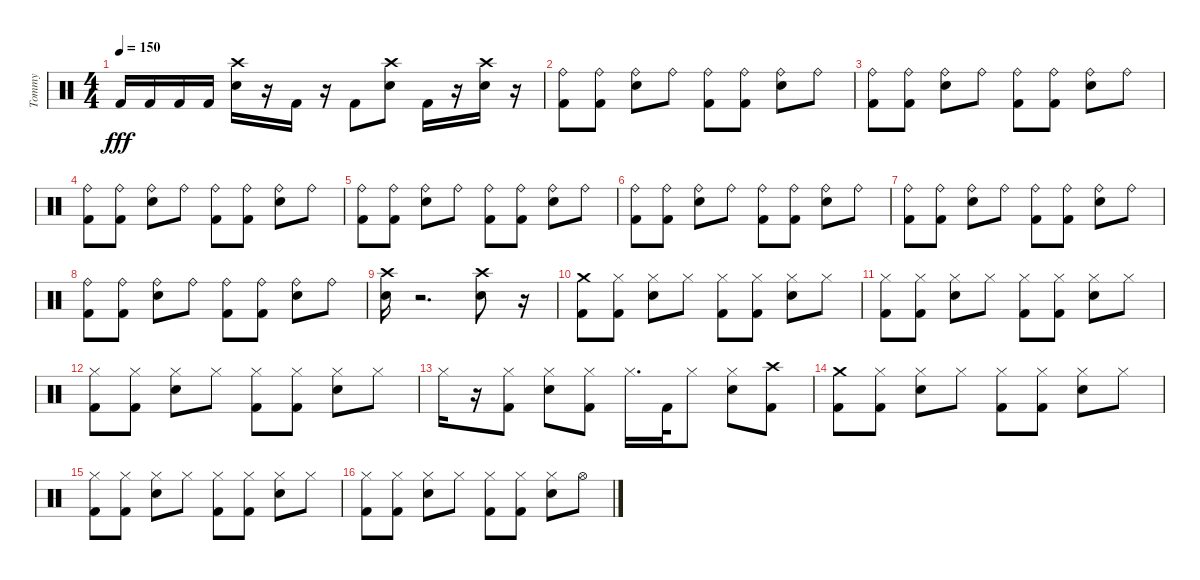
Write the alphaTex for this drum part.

\track ("Tommy" "Tommy") {instrument percussion}
\staff {score}
\articulation defaults
\ts (4 4)
\tempo 150
\clef neutral
\ks c "Kick (hit) 2".16{dy fff} "Kick (hit) 2".16 "Kick (hit) 2".16 "Kick (hit) 2".16
("Snare (hit) 2" "Crash high (hit)").16 r.16 "Kick (hit) 2".16 r.16 "Kick (hit) 2".8 ("Snare (hit) 2" "Crash high (hit)").8 "Kick (hit) 2".16 r.16 ("Snare (hit) 2" "Crash high (hit)").16 r.16 |
("Kick (hit) 2" "Ride (bell)").8 ("Kick (hit) 2" "Ride (bell)").8 ("Snare (hit) 2" "Ride (bell)").8 "Ride (bell)".8 ("Kick (hit) 2" "Ride (bell)").8 ("Kick (hit) 2" "Ride (bell)").8 ("Snare (hit) 2" "Ride (bell)").8 "Ride (bell)".8 |
("Ride (bell)" "Kick (hit) 2").8 ("Kick (hit) 2" "Ride (bell)").8 ("Snare (hit) 2" "Ride (bell)").8 "Ride (bell)".8 ("Kick (hit) 2" "Ride (bell)").8 ("Kick (hit) 2" "Ride (bell)").8 ("Snare (hit) 2" "Ride (bell)").8 "Ride (bell)".8 |
("Ride (bell)" "Kick (hit) 2").8 ("Kick (hit) 2" "Ride (bell)").8 ("Snare (hit) 2" "Ride (bell)").8 "Ride (bell)".8 ("Kick (hit) 2" "Ride (bell)").8 ("Kick (hit) 2" "Ride (bell)").8 ("Snare (hit) 2" "Ride (bell)").8 "Ride (bell)".8 |
("Ride (bell)" "Kick (hit) 2").8 ("Kick (hit) 2" "Ride (bell)").8 ("Snare (hit) 2" "Ride (bell)").8 "Ride (bell)".8 ("Kick (hit) 2" "Ride (bell)").8 ("Kick (hit) 2" "Ride (bell)").8 ("Snare (hit) 2" "Ride (bell)").8 "Ride (bell)".8 |
("Ride (bell)" "Kick (hit) 2").8 ("Kick (hit) 2" "Ride (bell)").8 ("Snare (hit) 2" "Ride (bell)").8 "Ride (bell)".8 ("Kick (hit) 2" "Ride (bell)").8 ("Kick (hit) 2" "Ride (bell)").8 ("Snare (hit) 2" "Ride (bell)").8 "Ride (bell)".8 |
("Kick (hit) 2" "Ride (bell)").8 ("Kick (hit) 2" "Ride (bell)").8 ("Snare (hit) 2" "Ride (bell)").8 "Ride (bell)".8 ("Kick (hit) 2" "Ride (bell)").8 ("Kick (hit) 2" "Ride (bell)").8 ("Snare (hit) 2" "Ride (bell)").8 "Ride (bell)".8 |
("Kick (hit) 2" "Ride (bell)").8 ("Kick (hit) 2" "Ride (bell)").8 ("Snare (hit) 2" "Ride (bell)").8 "Ride (bell)".8 ("Kick (hit) 2" "Ride (bell)").8 ("Kick (hit) 2" "Ride (bell)").8 ("Snare (hit) 2" "Ride (bell)").8 "Ride (bell)".8 |
("Snare (hit) 2" "Crash high (hit)").16 r.2{d} ("Crash high (hit)" "Snare (hit) 2").8 r.16 |
("Kick (hit) 2" "Crash medium (hit)").8 ("Hi-Hat (closed)" "Kick (hit) 2").8 ("Snare (hit) 2" "Hi-Hat (closed)").8 "Hi-Hat (closed)".8 ("Kick (hit) 2" "Hi-Hat (closed)").8 ("Hi-Hat (closed)" "Kick (hit) 2").8 ("Snare (hit) 2" "Hi-Hat (closed)").8 "Hi-Hat (closed)".8 |
("Kick (hit) 2" "Hi-Hat (closed)").8 ("Hi-Hat (closed)" "Kick (hit) 2").8 ("Snare (hit) 2" "Hi-Hat (closed)").8 "Hi-Hat (closed)".8 ("Kick (hit) 2" "Hi-Hat (closed)").8 ("Hi-Hat (closed)" "Kick (hit) 2").8 ("Snare (hit) 2" "Hi-Hat (closed)").8 "Hi-Hat (closed)".8 |
("Kick (hit) 2" "Hi-Hat (closed)").8 ("Kick (hit) 2" "Hi-Hat (closed)").8 ("Snare (hit) 2" "Hi-Hat (closed)").8 "Hi-Hat (closed)".8 ("Kick (hit) 2" "Hi-Hat (closed)").8 ("Kick (hit) 2" "Hi-Hat (closed)").8 ("Snare (hit) 2" "Hi-Hat (closed)").8 "Hi-Hat (closed)".8 |
"Hi-Hat (closed)".16 r.16 ("Kick (hit) 2" "Hi-Hat (closed)").8 ("Snare (hit) 2" "Hi-Hat (closed)").8 ("Hi-Hat (closed)" "Kick (hit) 2").8 "Hi-Hat (closed)".16{d} "Kick (hit) 2".32 "Hi-Hat (closed)".8 ("Snare (hit) 2" "Hi-Hat (closed)").8 ("Kick (hit) 2" "Crash high (hit)").8 |
("Kick (hit) 2" "Crash medium (hit)").8 ("Kick (hit) 2" "Hi-Hat (closed)").8 ("Snare (hit) 2" "Hi-Hat (closed)").8 "Hi-Hat (closed)".8 ("Kick (hit) 2" "Hi-Hat (closed)").8 ("Kick (hit) 2" "Hi-Hat (closed)").8 ("Snare (hit) 2" "Hi-Hat (closed)").8 "Hi-Hat (closed)".8 |
("Kick (hit) 2" "Hi-Hat (closed)").8 ("Kick (hit) 2" "Hi-Hat (closed)").8 ("Snare (hit) 2" "Hi-Hat (closed)").8 "Hi-Hat (closed)".8 ("Kick (hit) 2" "Hi-Hat (closed)").8 ("Kick (hit) 2" "Hi-Hat (closed)").8 ("Snare (hit) 2" "Hi-Hat (closed)").8 "Hi-Hat (closed)".8 |
("Hi-Hat (closed)" "Kick (hit) 2").8 ("Kick (hit) 2" "Hi-Hat (closed)").8 ("Snare (hit) 2" "Hi-Hat (closed)").8 "Hi-Hat (closed)".8 ("Kick (hit) 2" "Hi-Hat (closed)").8 ("Kick (hit) 2" "Hi-Hat (closed)").8 ("Snare (hit) 2" "Hi-Hat (closed)").8 "Hi-Hat (open)".8
